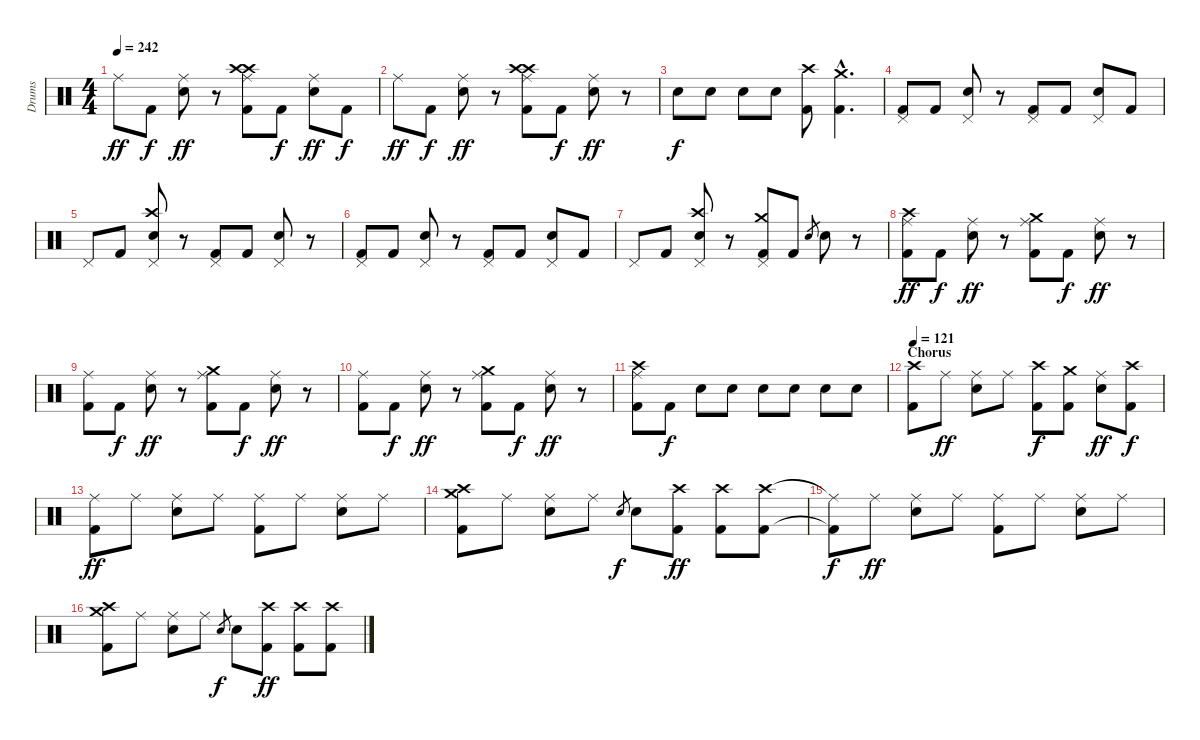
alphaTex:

\track ("Drums" "Drums") {instrument percussion}
\staff {score}
\articulation defaults
\ts (4 4)
\tempo 242
\clef neutral
\ks c "Ride (middle)".8{dy ff} "Kick (hit) 2".8{dy f}
("Ride (middle)" "Electric Snare (hit)").8{dy ff} r.8 ("Ride (middle)" "Crash high (hit)" "Crash high (hit)" "Kick (hit) 2").8 "Kick (hit) 2".8{dy f} ("Ride (middle)" "Electric Snare (hit)").8{dy ff} "Kick (hit) 2".8{dy f} |
"Ride (middle)".8{dy ff} "Kick (hit) 2".8{dy f} ("Ride (middle)" "Electric Snare (hit)").8{dy ff} r.8 ("Ride (middle)" "Crash high (hit)" "Crash high (hit)" "Kick (hit) 2").8 "Kick (hit) 2".8{dy f} ("Ride (middle)" "Electric Snare (hit)").8{dy ff} r.8 |
"Electric Snare (hit)".8{dy f} "Electric Snare (hit)".8 "Electric Snare (hit)".8 "Electric Snare (hit)".8 ("Crash high (hit)" "Kick (hit) 2").8 ("Crash medium (hit)"{hac} "Kick (hit) 2"{hac}).4{d} |
("Pedal Hi-Hat (hit)" "Kick (hit) 2").8 "Kick (hit) 2".8 ("Pedal Hi-Hat (hit)" "Electric Snare (hit)").8 r.8 ("Pedal Hi-Hat (hit)" "Kick (hit) 2").8 "Kick (hit) 2".8 ("Pedal Hi-Hat (hit)" "Electric Snare (hit)").8 "Kick (hit) 2".8 |
"Pedal Hi-Hat (hit)".8 "Kick (hit) 2".8 ("Pedal Hi-Hat (hit)" "Electric Snare (hit)" "Crash high (hit)").8 r.8 ("Pedal Hi-Hat (hit)" "Kick (hit) 2").8 "Kick (hit) 2".8 ("Pedal Hi-Hat (hit)" "Electric Snare (hit)").8 r.8 |
("Pedal Hi-Hat (hit)" "Kick (hit) 2").8 "Kick (hit) 2".8 ("Pedal Hi-Hat (hit)" "Electric Snare (hit)").8 r.8 ("Pedal Hi-Hat (hit)" "Kick (hit) 2").8 "Kick (hit) 2".8 ("Pedal Hi-Hat (hit)" "Electric Snare (hit)").8 "Kick (hit) 2".8 |
"Pedal Hi-Hat (hit)".8 "Kick (hit) 2".8 ("Pedal Hi-Hat (hit)" "Electric Snare (hit)" "Crash high (hit)").8 r.8 ("Pedal Hi-Hat (hit)" "Crash medium (hit)" "Kick (hit) 2").8 "Kick (hit) 2".8 "Electric Snare (hit)".8{gr} "Electric Snare (hit)".8 r.8 |
("Ride (middle)" "Crash high (hit)" "Kick (hit) 2").8{dy ff} "Kick (hit) 2".8{dy f} ("Ride (middle)" "Electric Snare (hit)").8{dy ff} r.8 ("Ride (middle)" "Crash medium (hit)" "Kick (hit) 2").8 "Kick (hit) 2".8{dy f} ("Ride (middle)" "Electric Snare (hit)").8{dy ff} r.8 |
("Ride (middle)" "Kick (hit) 2").8 "Kick (hit) 2".8{dy f} ("Ride (middle)" "Electric Snare (hit)").8{dy ff} r.8 ("Ride (middle)" "Crash medium (hit)" "Kick (hit) 2").8 "Kick (hit) 2".8{dy f} ("Ride (middle)" "Electric Snare (hit)").8{dy ff} r.8 |
("Ride (middle)" "Kick (hit) 2").8 "Kick (hit) 2".8{dy f} ("Ride (middle)" "Electric Snare (hit)").8{dy ff} r.8 ("Ride (middle)" "Crash medium (hit)" "Kick (hit) 2").8 "Kick (hit) 2".8{dy f} ("Ride (middle)" "Electric Snare (hit)").8{dy ff} r.8 |
("Ride (middle)" "Crash high (hit)" "Kick (hit) 2").8 "Kick (hit) 2".8{dy f} "Electric Snare (hit)".8 "Electric Snare (hit)".8 "Electric Snare (hit)".8 "Electric Snare (hit)".8 "Electric Snare (hit)".8 "Electric Snare (hit)".8 |
\section ("" "Chorus")
\tempo 121
("Crash high (hit)" "Kick (hit) 2").8 "Ride (middle)".8{dy ff} ("Ride (middle)" "Electric Snare (hit)").8 "Ride (middle)".8 ("Crash high (hit)" "Kick (hit) 2").8{dy f} ("Crash medium (hit)" "Kick (hit) 2").8 ("Ride (middle)" "Electric Snare (hit)").8{dy ff} ("Crash high (hit)" "Kick (hit) 2").8{dy f} |
("Ride (middle)" "Kick (hit) 2").8{dy ff} "Ride (middle)".8 ("Ride (middle)" "Electric Snare (hit)").8 "Ride (middle)".8 ("Ride (middle)" "Kick (hit) 2").8 "Ride (middle)".8 ("Ride (middle)" "Electric Snare (hit)").8 "Ride (middle)".8 |
("Crash high (hit)" "Crash medium (hit)" "Kick (hit) 2").8 "Ride (middle)".8 ("Ride (middle)" "Electric Snare (hit)").8 "Ride (middle)".8 "Electric Snare (hit)".8{gr dy f} "Electric Snare (hit)".8 ("Crash high (hit)" "Kick (hit) 2").8{dy ff} ("Crash high (hit)" "Kick (hit) 2").8 ("Crash high (hit)" "Kick (hit) 2").8 |
("Ride (middle)"{t} "Kick (hit) 2"{t}).8{dy f} "Ride (middle)".8{dy ff} ("Ride (middle)" "Electric Snare (hit)").8 "Ride (middle)".8 ("Ride (middle)" "Kick (hit) 2").8 "Ride (middle)".8 ("Ride (middle)" "Electric Snare (hit)").8 "Ride (middle)".8 |
("Crash high (hit)" "Crash medium (hit)" "Kick (hit) 2").8 "Ride (middle)".8 ("Ride (middle)" "Electric Snare (hit)").8 "Ride (middle)".8 "Electric Snare (hit)".8{gr dy f} "Electric Snare (hit)".8 ("Crash high (hit)" "Kick (hit) 2").8{dy ff} ("Crash high (hit)" "Kick (hit) 2").8 ("Crash high (hit)" "Kick (hit) 2").8
